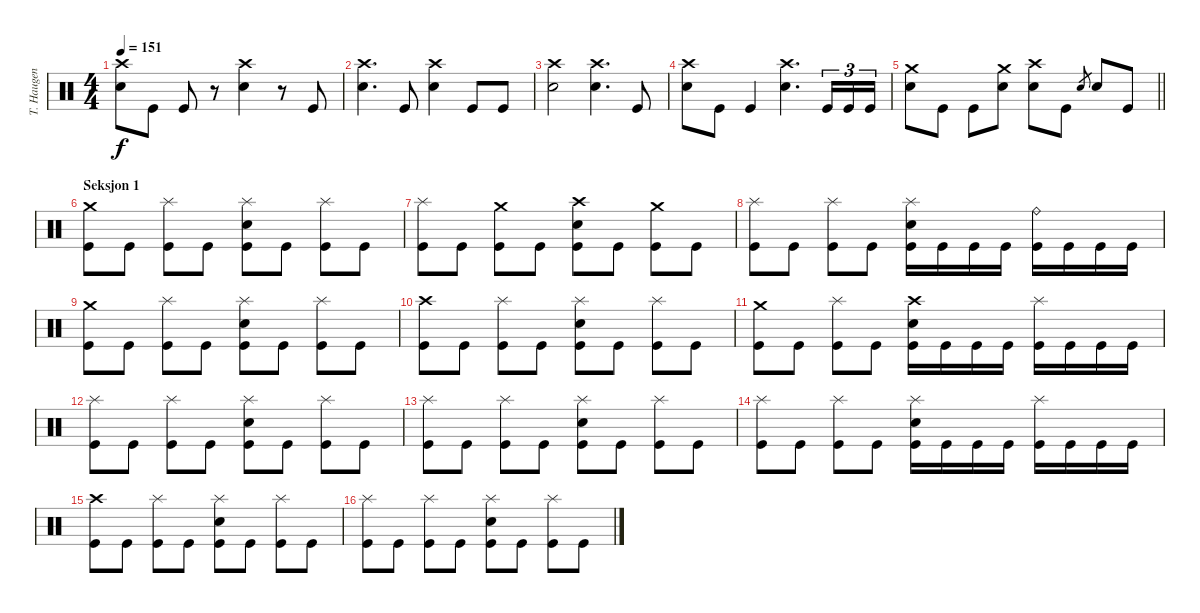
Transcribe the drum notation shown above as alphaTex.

\track ("T. Haugen" "T. Haugen") {instrument percussion}
\staff {score}
\articulation defaults
\ts (4 4)
\tempo 151
\clef neutral
\ks c
("Crash high (hit)" "Electric Snare (hit)").8{dy f} "Kick (hit)".8 "Kick (hit)".8 r.8 ("Crash high (hit)" "Electric Snare (hit)").4 r.8 "Kick (hit)".8 |
("Crash high (hit)" "Electric Snare (hit)").4{d} "Kick (hit)".8 ("Crash high (hit)" "Electric Snare (hit)").4 "Kick (hit)".8 "Kick (hit)".8 |
("Crash high (hit)" "Electric Snare (hit)").2 ("Crash high (hit)" "Electric Snare (hit)").4{d} "Kick (hit)".8 |
("Crash high (hit)" "Electric Snare (hit)").8 "Kick (hit)".8 "Kick (hit)".4 ("Crash high (hit)" "Electric Snare (hit)").4{d} "Kick (hit)".16{tu (3 2)} "Kick (hit)".16{tu (3 2)} "Kick (hit)".16{tu (3 2)} |
\barLineRight lightlight
("Crash medium (hit)" "Electric Snare (hit)").8 "Kick (hit)".8 "Kick (hit)".8 ("Crash medium (hit)" "Electric Snare (hit)").8 ("Crash high (hit)" "Electric Snare (hit)").8 "Kick (hit)".8 "Electric Snare (hit)".8{gr} "Electric Snare (hit)".8 "Kick (hit)".8 |
\section ("" "Seksjon 1")
("Crash medium (hit)" "Kick (hit)").8 "Kick (hit)".8 ("Splash (hit)" "Kick (hit)").8 "Kick (hit)".8 ("Splash (hit)" "Electric Snare (hit)" "Kick (hit)").8 "Kick (hit)".8 ("Splash (hit)" "Kick (hit)").8 "Kick (hit)".8 |
("Splash (hit)" "Kick (hit)").8 "Kick (hit)".8 ("Crash medium (hit)" "Kick (hit)").8 "Kick (hit)".8 ("Crash high (hit)" "Electric Snare (hit)" "Kick (hit)").8 "Kick (hit)".8 ("Crash medium (hit)" "Kick (hit)").8 "Kick (hit)".8 |
("Splash (hit)" "Kick (hit)").8 "Kick (hit)".8 ("Splash (hit)" "Kick (hit)").8 "Kick (hit)".8 ("Splash (hit)" "Electric Snare (hit)" "Kick (hit)").16 "Kick (hit)".16 "Kick (hit)".16 "Kick (hit)".16 ("Ride (bell)" "Kick (hit)").16 "Kick (hit)".16 "Kick (hit)".16 "Kick (hit)".16 |
("Crash medium (hit)" "Kick (hit)").8 "Kick (hit)".8 ("Splash (hit)" "Kick (hit)").8 "Kick (hit)".8 ("Splash (hit)" "Electric Snare (hit)" "Kick (hit)").8 "Kick (hit)".8 ("Splash (hit)" "Kick (hit)").8 "Kick (hit)".8 |
("Crash high (hit)" "Kick (hit)").8 "Kick (hit)".8 ("Splash (hit)" "Kick (hit)").8 "Kick (hit)".8 ("Splash (hit)" "Electric Snare (hit)" "Kick (hit)").8 "Kick (hit)".8 ("Splash (hit)" "Kick (hit)").8 "Kick (hit)".8 |
("Crash medium (hit)" "Kick (hit)").8 "Kick (hit)".8 ("Splash (hit)" "Kick (hit)").8 "Kick (hit)".8 ("Crash high (hit)" "Electric Snare (hit)" "Kick (hit)").16 "Kick (hit)".16 "Kick (hit)".16 "Kick (hit)".16 ("Splash (hit)" "Kick (hit)").16 "Kick (hit)".16 "Kick (hit)".16 "Kick (hit)".16 |
("Splash (hit)" "Kick (hit)").8 "Kick (hit)".8 ("Splash (hit)" "Kick (hit)").8 "Kick (hit)".8 ("Splash (hit)" "Electric Snare (hit)" "Kick (hit)").8 "Kick (hit)".8 ("Splash (hit)" "Kick (hit)").8 "Kick (hit)".8 |
("Splash (hit)" "Kick (hit)").8 "Kick (hit)".8 ("Splash (hit)" "Kick (hit)").8 "Kick (hit)".8 ("Splash (hit)" "Electric Snare (hit)" "Kick (hit)").8 "Kick (hit)".8 ("Splash (hit)" "Kick (hit)").8 "Kick (hit)".8 |
("Splash (hit)" "Kick (hit)").8 "Kick (hit)".8 ("Splash (hit)" "Kick (hit)").8 "Kick (hit)".8 ("Splash (hit)" "Electric Snare (hit)" "Kick (hit)").16 "Kick (hit)".16 "Kick (hit)".16 "Kick (hit)".16 ("Splash (hit)" "Kick (hit)").16 "Kick (hit)".16 "Kick (hit)".16 "Kick (hit)".16 |
("Crash high (hit)" "Kick (hit)").8 "Kick (hit)".8 ("Splash (hit)" "Kick (hit)").8 "Kick (hit)".8 ("Splash (hit)" "Electric Snare (hit)" "Kick (hit)").8 "Kick (hit)".8 ("Splash (hit)" "Kick (hit)").8 "Kick (hit)".8 |
("Splash (hit)" "Kick (hit)").8 "Kick (hit)".8 ("Splash (hit)" "Kick (hit)").8 "Kick (hit)".8 ("Splash (hit)" "Electric Snare (hit)" "Kick (hit)").8 "Kick (hit)".8 ("Splash (hit)" "Kick (hit)").8 "Kick (hit)".8
